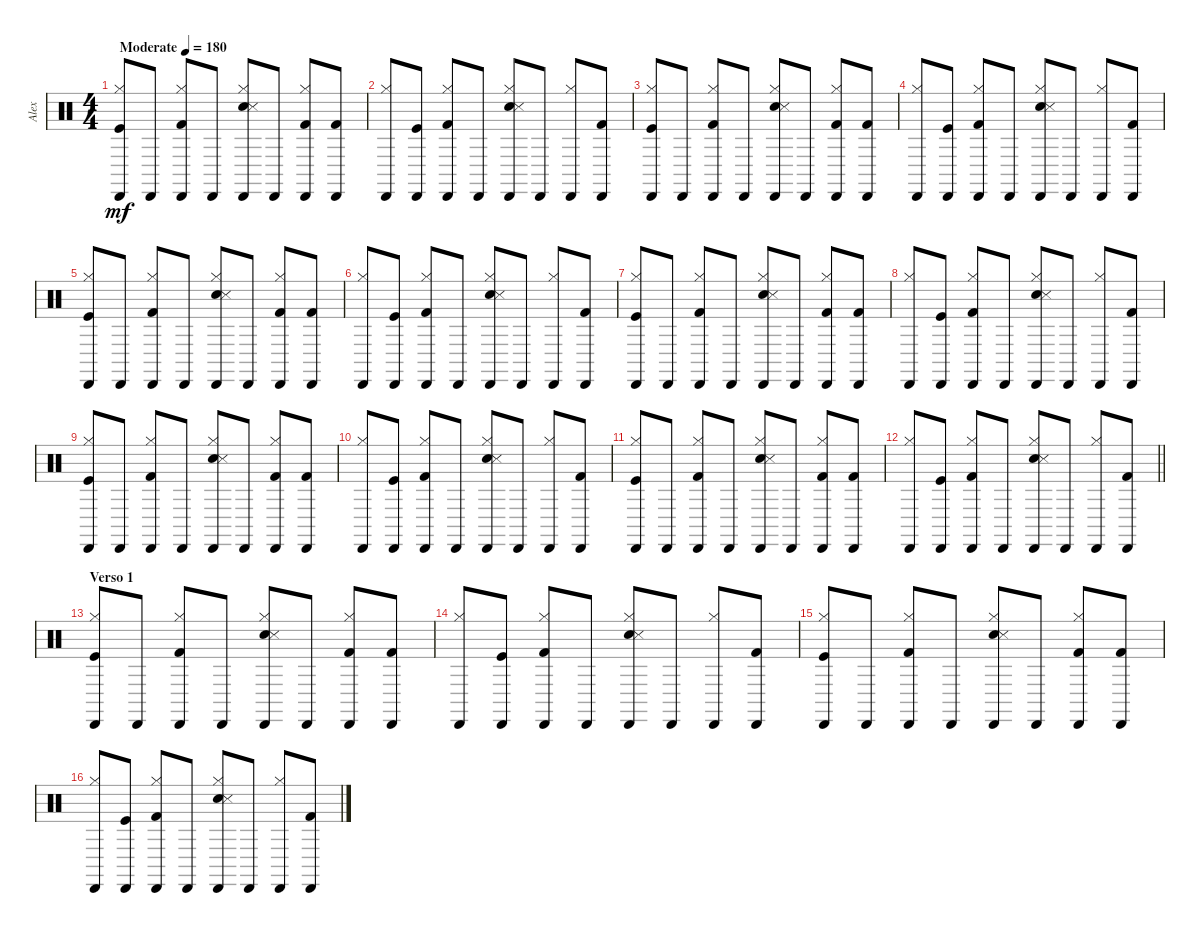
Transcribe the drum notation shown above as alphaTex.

\track ("Alex" "Alex") {instrument percussion}
\staff {score}
\articulation defaults
\ts (4 4)
\tempo (180 "Moderate")
\clef neutral
\ks c
("Hi-Hat (closed)" "Kick (hit)" "Cabasa (hit)").8{dy mf} "Cabasa (hit)".8 ("Hi-Hat (closed)" "Kick (hit) 2" "Cabasa (hit)").8 "Cabasa (hit)".8 ("Hi-Hat (closed)" "Hand Clap (hit)" "Snare (side stick) 3" "Cabasa (hit)").8 "Cabasa (hit)".8 ("Hi-Hat (closed)" "Kick (hit) 2" "Cabasa (hit)").8 ("Kick (hit) 2" "Cabasa (hit)").8 |
("Hi-Hat (closed)" "Cabasa (hit)").8 ("Kick (hit)" "Cabasa (hit)").8 ("Hi-Hat (closed)" "Kick (hit) 2" "Cabasa (hit)").8 "Cabasa (hit)".8 ("Hi-Hat (closed)" "Hand Clap (hit)" "Snare (side stick) 3" "Cabasa (hit)").8 "Cabasa (hit)".8 ("Hi-Hat (closed)" "Cabasa (hit)").8 ("Kick (hit) 2" "Cabasa (hit)").8 |
("Hi-Hat (closed)" "Kick (hit)" "Cabasa (hit)").8 "Cabasa (hit)".8 ("Hi-Hat (closed)" "Kick (hit) 2" "Cabasa (hit)").8 "Cabasa (hit)".8 ("Hi-Hat (closed)" "Hand Clap (hit)" "Snare (side stick) 3" "Cabasa (hit)").8 "Cabasa (hit)".8 ("Hi-Hat (closed)" "Kick (hit) 2" "Cabasa (hit)").8 ("Kick (hit) 2" "Cabasa (hit)").8 |
("Hi-Hat (closed)" "Cabasa (hit)").8 ("Kick (hit)" "Cabasa (hit)").8 ("Hi-Hat (closed)" "Kick (hit) 2" "Cabasa (hit)").8 "Cabasa (hit)".8 ("Hi-Hat (closed)" "Hand Clap (hit)" "Snare (side stick) 3" "Cabasa (hit)").8 "Cabasa (hit)".8 ("Hi-Hat (closed)" "Cabasa (hit)").8 ("Kick (hit) 2" "Cabasa (hit)").8 |
("Hi-Hat (closed)" "Kick (hit)" "Cabasa (hit)").8 "Cabasa (hit)".8 ("Hi-Hat (closed)" "Kick (hit) 2" "Cabasa (hit)").8 "Cabasa (hit)".8 ("Hi-Hat (closed)" "Hand Clap (hit)" "Snare (side stick) 3" "Cabasa (hit)").8 "Cabasa (hit)".8 ("Hi-Hat (closed)" "Kick (hit) 2" "Cabasa (hit)").8 ("Kick (hit) 2" "Cabasa (hit)").8 |
("Hi-Hat (closed)" "Cabasa (hit)").8 ("Kick (hit)" "Cabasa (hit)").8 ("Hi-Hat (closed)" "Kick (hit) 2" "Cabasa (hit)").8 "Cabasa (hit)".8 ("Hi-Hat (closed)" "Hand Clap (hit)" "Snare (side stick) 3" "Cabasa (hit)").8 "Cabasa (hit)".8 ("Hi-Hat (closed)" "Cabasa (hit)").8 ("Kick (hit) 2" "Cabasa (hit)").8 |
("Hi-Hat (closed)" "Kick (hit)" "Cabasa (hit)").8 "Cabasa (hit)".8 ("Hi-Hat (closed)" "Kick (hit) 2" "Cabasa (hit)").8 "Cabasa (hit)".8 ("Hi-Hat (closed)" "Hand Clap (hit)" "Snare (side stick) 3" "Cabasa (hit)").8 "Cabasa (hit)".8 ("Hi-Hat (closed)" "Kick (hit) 2" "Cabasa (hit)").8 ("Kick (hit) 2" "Cabasa (hit)").8 |
("Hi-Hat (closed)" "Cabasa (hit)").8 ("Kick (hit)" "Cabasa (hit)").8 ("Hi-Hat (closed)" "Kick (hit) 2" "Cabasa (hit)").8 "Cabasa (hit)".8 ("Hi-Hat (closed)" "Hand Clap (hit)" "Snare (side stick) 3" "Cabasa (hit)").8 "Cabasa (hit)".8 ("Hi-Hat (closed)" "Cabasa (hit)").8 ("Kick (hit) 2" "Cabasa (hit)").8 |
("Hi-Hat (closed)" "Kick (hit)" "Cabasa (hit)").8 "Cabasa (hit)".8 ("Hi-Hat (closed)" "Kick (hit) 2" "Cabasa (hit)").8 "Cabasa (hit)".8 ("Hi-Hat (closed)" "Hand Clap (hit)" "Snare (side stick) 3" "Cabasa (hit)").8 "Cabasa (hit)".8 ("Hi-Hat (closed)" "Kick (hit) 2" "Cabasa (hit)").8 ("Kick (hit) 2" "Cabasa (hit)").8 |
("Hi-Hat (closed)" "Cabasa (hit)").8 ("Kick (hit)" "Cabasa (hit)").8 ("Hi-Hat (closed)" "Kick (hit) 2" "Cabasa (hit)").8 "Cabasa (hit)".8 ("Hi-Hat (closed)" "Hand Clap (hit)" "Snare (side stick) 3" "Cabasa (hit)").8 "Cabasa (hit)".8 ("Hi-Hat (closed)" "Cabasa (hit)").8 ("Kick (hit) 2" "Cabasa (hit)").8 |
("Hi-Hat (closed)" "Kick (hit)" "Cabasa (hit)").8 "Cabasa (hit)".8 ("Hi-Hat (closed)" "Kick (hit) 2" "Cabasa (hit)").8 "Cabasa (hit)".8 ("Hi-Hat (closed)" "Hand Clap (hit)" "Snare (side stick) 3" "Cabasa (hit)").8 "Cabasa (hit)".8 ("Hi-Hat (closed)" "Kick (hit) 2" "Cabasa (hit)").8 ("Kick (hit) 2" "Cabasa (hit)").8 |
\barLineRight lightlight
("Hi-Hat (closed)" "Cabasa (hit)").8 ("Kick (hit)" "Cabasa (hit)").8 ("Hi-Hat (closed)" "Kick (hit) 2" "Cabasa (hit)").8 "Cabasa (hit)".8 ("Hi-Hat (closed)" "Hand Clap (hit)" "Snare (side stick) 3" "Cabasa (hit)").8 "Cabasa (hit)".8 ("Hi-Hat (closed)" "Cabasa (hit)").8 ("Kick (hit) 2" "Cabasa (hit)").8 |
\section ("" "Verso 1")
("Hi-Hat (closed)" "Kick (hit)" "Cabasa (hit)").8 "Cabasa (hit)".8 ("Hi-Hat (closed)" "Kick (hit) 2" "Cabasa (hit)").8 "Cabasa (hit)".8 ("Hi-Hat (closed)" "Hand Clap (hit)" "Snare (side stick) 3" "Cabasa (hit)").8 "Cabasa (hit)".8 ("Hi-Hat (closed)" "Kick (hit) 2" "Cabasa (hit)").8 ("Kick (hit) 2" "Cabasa (hit)").8 |
("Hi-Hat (closed)" "Cabasa (hit)").8 ("Kick (hit)" "Cabasa (hit)").8 ("Hi-Hat (closed)" "Kick (hit) 2" "Cabasa (hit)").8 "Cabasa (hit)".8 ("Hi-Hat (closed)" "Hand Clap (hit)" "Snare (side stick) 3" "Cabasa (hit)").8 "Cabasa (hit)".8 ("Hi-Hat (closed)" "Cabasa (hit)").8 ("Kick (hit) 2" "Cabasa (hit)").8 |
("Hi-Hat (closed)" "Kick (hit)" "Cabasa (hit)").8 "Cabasa (hit)".8 ("Hi-Hat (closed)" "Kick (hit) 2" "Cabasa (hit)").8 "Cabasa (hit)".8 ("Hi-Hat (closed)" "Hand Clap (hit)" "Snare (side stick) 3" "Cabasa (hit)").8 "Cabasa (hit)".8 ("Hi-Hat (closed)" "Kick (hit) 2" "Cabasa (hit)").8 ("Kick (hit) 2" "Cabasa (hit)").8 |
("Hi-Hat (closed)" "Cabasa (hit)").8 ("Kick (hit)" "Cabasa (hit)").8 ("Hi-Hat (closed)" "Kick (hit) 2" "Cabasa (hit)").8 "Cabasa (hit)".8 ("Hi-Hat (closed)" "Hand Clap (hit)" "Snare (side stick) 3" "Cabasa (hit)").8 "Cabasa (hit)".8 ("Hi-Hat (closed)" "Cabasa (hit)").8 ("Kick (hit) 2" "Cabasa (hit)").8
